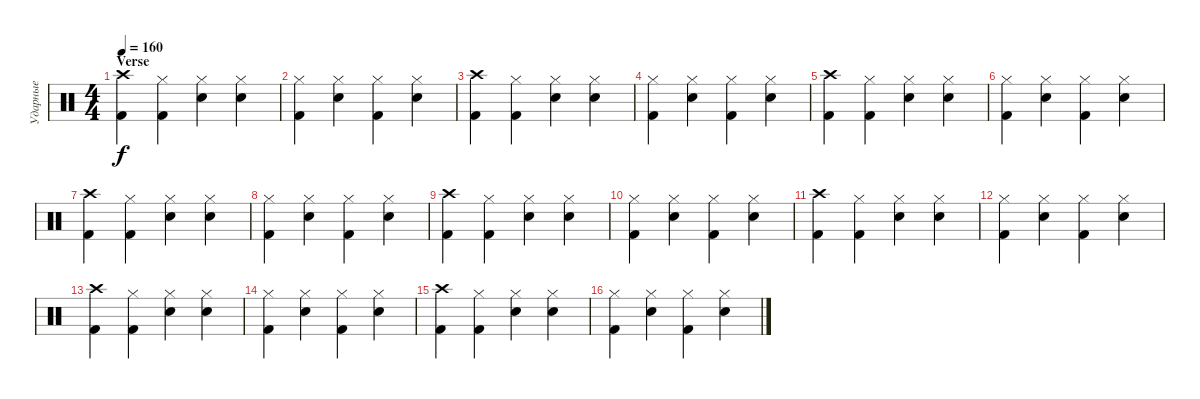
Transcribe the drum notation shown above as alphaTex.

\track ("Ударные" "Ударные") {instrument percussion}
\staff {score}
\articulation defaults
\ts (4 4)
\section ("" "Verse")
\tempo 160
\clef neutral
\ks c
("Crash high (hit)" "Kick (hit) 2").4{dy f volume 13} ("Hi-Hat (closed)" "Kick (hit) 2").4 ("Hi-Hat (closed)" "Snare (hit) 2").4 ("Hi-Hat (closed)" "Snare (hit) 2").4 |
("Hi-Hat (closed)" "Kick (hit) 2").4 ("Hi-Hat (closed)" "Snare (hit) 2").4 ("Hi-Hat (closed)" "Kick (hit) 2").4 ("Hi-Hat (closed)" "Snare (hit) 2").4 |
("Crash high (hit)" "Kick (hit) 2").4 ("Hi-Hat (closed)" "Kick (hit) 2").4 ("Hi-Hat (closed)" "Snare (hit) 2").4 ("Hi-Hat (closed)" "Snare (hit) 2").4 |
("Hi-Hat (closed)" "Kick (hit) 2").4 ("Hi-Hat (closed)" "Snare (hit) 2").4 ("Hi-Hat (closed)" "Kick (hit) 2").4 ("Hi-Hat (closed)" "Snare (hit) 2").4 |
("Crash high (hit)" "Kick (hit) 2").4 ("Hi-Hat (closed)" "Kick (hit) 2").4 ("Hi-Hat (closed)" "Snare (hit) 2").4 ("Hi-Hat (closed)" "Snare (hit) 2").4 |
("Hi-Hat (closed)" "Kick (hit) 2").4 ("Hi-Hat (closed)" "Snare (hit) 2").4 ("Hi-Hat (closed)" "Kick (hit) 2").4 ("Hi-Hat (closed)" "Snare (hit) 2").4 |
("Crash high (hit)" "Kick (hit) 2").4 ("Hi-Hat (closed)" "Kick (hit) 2").4 ("Hi-Hat (closed)" "Snare (hit) 2").4 ("Hi-Hat (closed)" "Snare (hit) 2").4 |
("Hi-Hat (closed)" "Kick (hit) 2").4 ("Hi-Hat (closed)" "Snare (hit) 2").4 ("Hi-Hat (closed)" "Kick (hit) 2").4 ("Hi-Hat (closed)" "Snare (hit) 2").4 |
("Crash high (hit)" "Kick (hit) 2").4 ("Hi-Hat (closed)" "Kick (hit) 2").4 ("Hi-Hat (closed)" "Snare (hit) 2").4 ("Hi-Hat (closed)" "Snare (hit) 2").4 |
("Hi-Hat (closed)" "Kick (hit) 2").4 ("Hi-Hat (closed)" "Snare (hit) 2").4 ("Hi-Hat (closed)" "Kick (hit) 2").4 ("Hi-Hat (closed)" "Snare (hit) 2").4 |
("Crash high (hit)" "Kick (hit) 2").4 ("Hi-Hat (closed)" "Kick (hit) 2").4 ("Hi-Hat (closed)" "Snare (hit) 2").4 ("Hi-Hat (closed)" "Snare (hit) 2").4 |
("Hi-Hat (closed)" "Kick (hit) 2").4 ("Hi-Hat (closed)" "Snare (hit) 2").4 ("Hi-Hat (closed)" "Kick (hit) 2").4 ("Hi-Hat (closed)" "Snare (hit) 2").4 |
("Crash high (hit)" "Kick (hit) 2").4 ("Hi-Hat (closed)" "Kick (hit) 2").4 ("Hi-Hat (closed)" "Snare (hit) 2").4 ("Hi-Hat (closed)" "Snare (hit) 2").4 |
("Hi-Hat (closed)" "Kick (hit) 2").4 ("Hi-Hat (closed)" "Snare (hit) 2").4 ("Hi-Hat (closed)" "Kick (hit) 2").4 ("Hi-Hat (closed)" "Snare (hit) 2").4 |
("Crash high (hit)" "Kick (hit) 2").4 ("Hi-Hat (closed)" "Kick (hit) 2").4 ("Hi-Hat (closed)" "Snare (hit) 2").4 ("Hi-Hat (closed)" "Snare (hit) 2").4 |
("Hi-Hat (closed)" "Kick (hit) 2").4 ("Hi-Hat (closed)" "Snare (hit) 2").4 ("Hi-Hat (closed)" "Kick (hit) 2").4 ("Hi-Hat (closed)" "Snare (hit) 2").4
